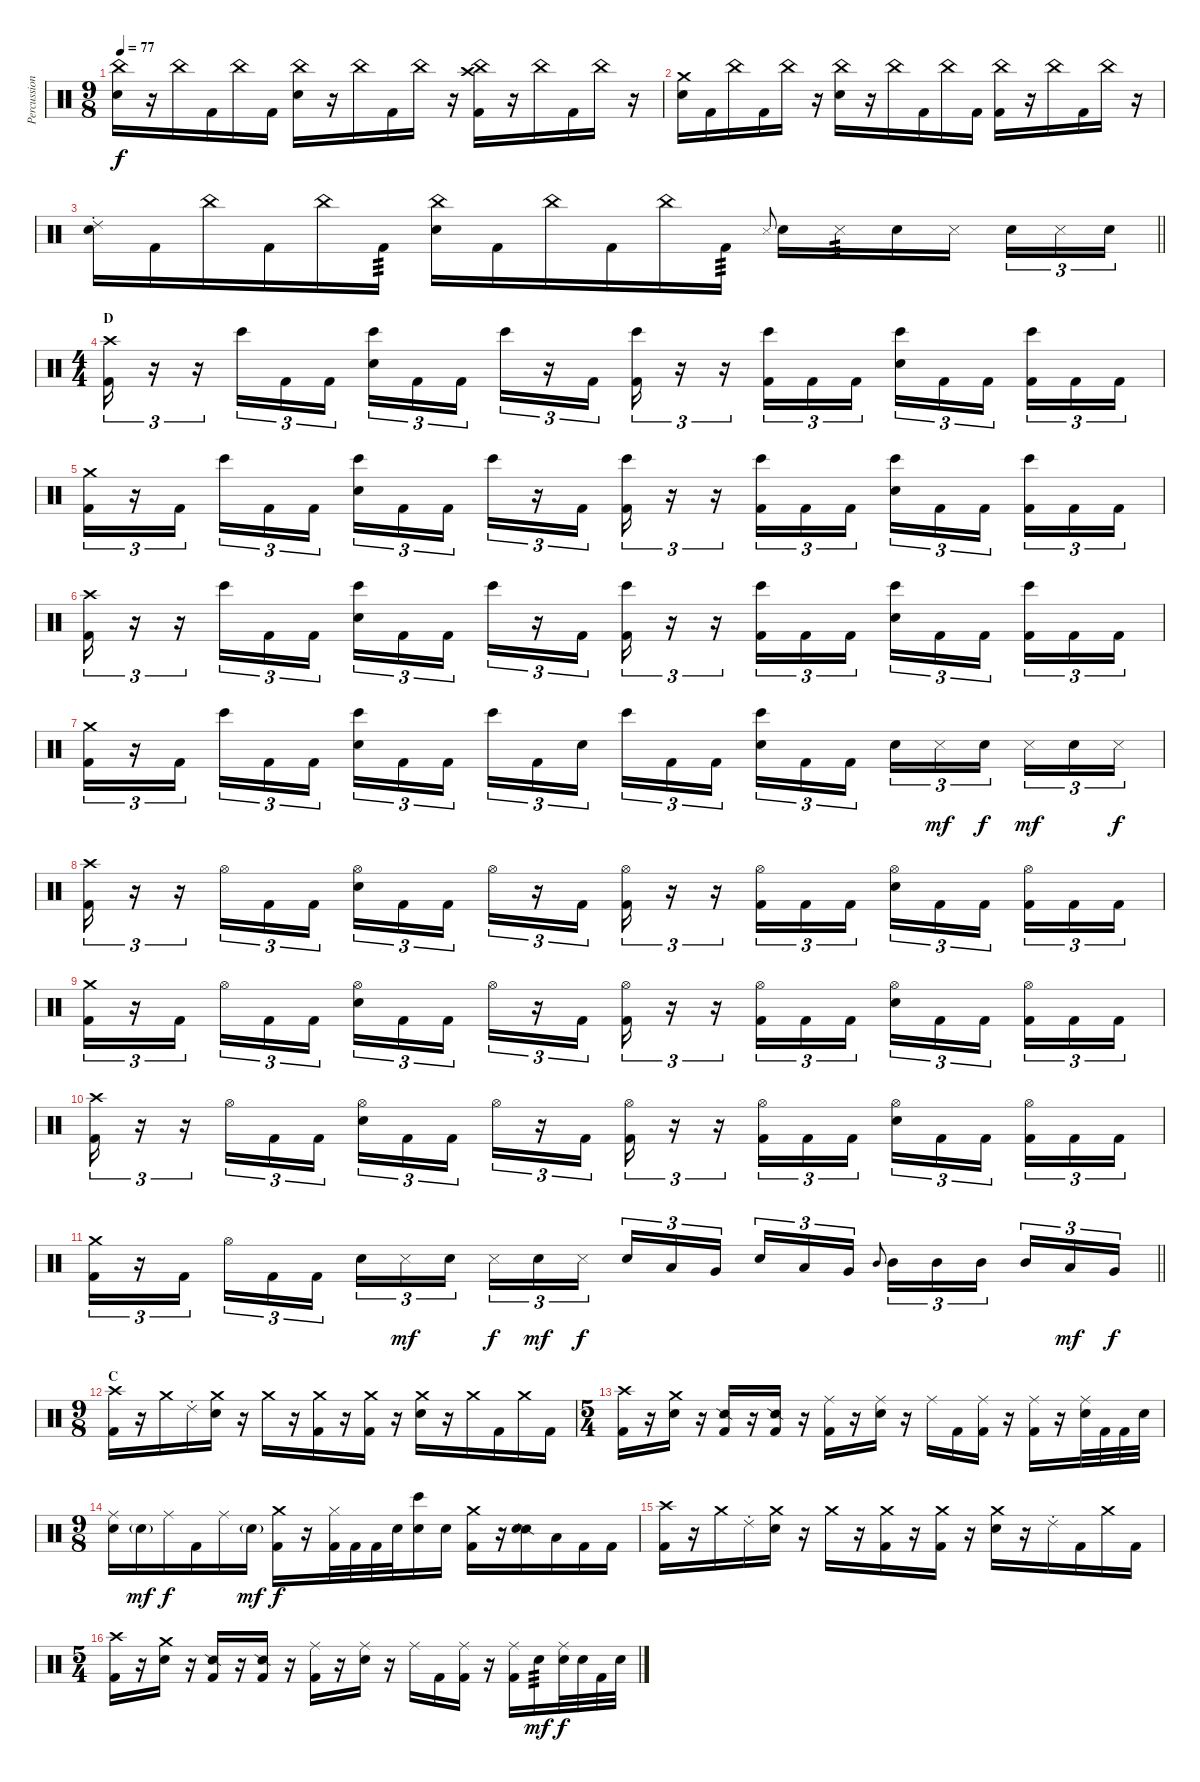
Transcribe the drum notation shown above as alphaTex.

\track ("Percussion" "Percussion") {instrument percussion}
\staff {score}
\articulation defaults
\ts (9 8)
\tempo 77
\clef neutral
\ks c
("China (hit)" "Snare (hit) 2").16{dy f} r.16 "China (hit)".16 "Kick (hit) 2".16 "China (hit)".16 "Kick (hit) 2".16 ("China (hit)" "Snare (hit) 2").16 r.16 "China (hit)".16 "Kick (hit) 2".16 "China (hit)".16 r.16 ("China (hit)" "Crash high (hit)" "Kick (hit) 2").16 r.16 "China (hit)".16 "Kick (hit) 2".16 "China (hit)".16 r.16 |
("Crash medium (hit)" "Snare (hit) 2").16 "Kick (hit) 2".16 "China (hit)".16 "Kick (hit) 2".16 "China (hit)".16 r.16 ("China (hit)" "Snare (hit) 2").16 r.16 "China (hit)".16 "Kick (hit) 2".16 "China (hit)".16 "Kick (hit) 2".16 ("China (hit)" "Kick (hit) 2").16 r.16 "China (hit)".16 "Kick (hit) 2".16 "China (hit)".16 r.16 |
\barLineRight lightlight
("Ride (choke) 2" "Snare (hit) 2").16 "Kick (hit) 2".16 "China (hit)".16 "Kick (hit) 2".16 "China (hit)".16 "Kick (hit) 2".16{tp 3} ("China (hit)" "Snare (hit) 2").16 "Kick (hit) 2".16 "China (hit)".16 "Kick (hit) 2".16 "China (hit)".16 "Kick (hit) 2".16{tp 3} "Metronome (hit)".8{gr onbeat} "Snare (hit) 2".16 "Metronome (hit)".16{tp 3} "Snare (hit) 2".16 "Metronome (hit)".16{beam splitsecondary} "Snare (hit) 2".16{tu (3 2)} "Metronome (hit)".16{tu (3 2)} "Snare (hit) 2".16{tu (3 2)} |
\ts (4 4)
\section ("" "D")
("Crash high (hit)" "Kick (hit) 2").16{tu (3 2)} r.16{tu (3 2)} r.16{tu (3 2)} "Bongo High (hit)".16{tu (3 2)} "Kick (hit) 2".16{tu (3 2)} "Kick (hit) 2".16{tu (3 2)} ("Bongo High (hit)" "Snare (hit) 2").16{tu (3 2)} "Kick (hit) 2".16{tu (3 2)} "Kick (hit) 2".16{tu (3 2) beam splitsecondary} "Bongo High (hit)".16{tu (3 2)} r.16{tu (3 2)} "Kick (hit) 2".16{tu (3 2)} ("Bongo High (hit)" "Kick (hit) 2").16{tu (3 2)} r.16{tu (3 2)} r.16{tu (3 2)} ("Bongo High (hit)" "Kick (hit) 2").16{tu (3 2)} "Kick (hit) 2".16{tu (3 2)} "Kick (hit) 2".16{tu (3 2)} ("Bongo High (hit)" "Snare (hit) 2").16{tu (3 2)} "Kick (hit) 2".16{tu (3 2)} "Kick (hit) 2".16{tu (3 2) beam splitsecondary} ("Bongo High (hit)" "Kick (hit) 2").16{tu (3 2)} "Kick (hit) 2".16{tu (3 2)} "Kick (hit) 2".16{tu (3 2)} |
("Crash medium (hit)" "Kick (hit) 2").16{tu (3 2)} r.16{tu (3 2)} "Kick (hit) 2".16{tu (3 2) beam splitsecondary} "Bongo High (hit)".16{tu (3 2)} "Kick (hit) 2".16{tu (3 2)} "Kick (hit) 2".16{tu (3 2)} ("Bongo High (hit)" "Snare (hit) 2").16{tu (3 2)} "Kick (hit) 2".16{tu (3 2)} "Kick (hit) 2".16{tu (3 2) beam splitsecondary} "Bongo High (hit)".16{tu (3 2)} r.16{tu (3 2)} "Kick (hit) 2".16{tu (3 2)} ("Bongo High (hit)" "Kick (hit) 2").16{tu (3 2)} r.16{tu (3 2)} r.16{tu (3 2)} ("Bongo High (hit)" "Kick (hit) 2").16{tu (3 2)} "Kick (hit) 2".16{tu (3 2)} "Kick (hit) 2".16{tu (3 2)} ("Bongo High (hit)" "Snare (hit) 2").16{tu (3 2)} "Kick (hit) 2".16{tu (3 2)} "Kick (hit) 2".16{tu (3 2) beam splitsecondary} ("Bongo High (hit)" "Kick (hit) 2").16{tu (3 2)} "Kick (hit) 2".16{tu (3 2)} "Kick (hit) 2".16{tu (3 2)} |
("Crash high (hit)" "Kick (hit) 2").16{tu (3 2)} r.16{tu (3 2)} r.16{tu (3 2)} "Bongo High (hit)".16{tu (3 2)} "Kick (hit) 2".16{tu (3 2)} "Kick (hit) 2".16{tu (3 2)} ("Bongo High (hit)" "Snare (hit) 2").16{tu (3 2)} "Kick (hit) 2".16{tu (3 2)} "Kick (hit) 2".16{tu (3 2) beam splitsecondary} "Bongo High (hit)".16{tu (3 2)} r.16{tu (3 2)} "Kick (hit) 2".16{tu (3 2)} ("Bongo High (hit)" "Kick (hit) 2").16{tu (3 2)} r.16{tu (3 2)} r.16{tu (3 2)} ("Bongo High (hit)" "Kick (hit) 2").16{tu (3 2)} "Kick (hit) 2".16{tu (3 2)} "Kick (hit) 2".16{tu (3 2)} ("Bongo High (hit)" "Snare (hit) 2").16{tu (3 2)} "Kick (hit) 2".16{tu (3 2)} "Kick (hit) 2".16{tu (3 2) beam splitsecondary} ("Bongo High (hit)" "Kick (hit) 2").16{tu (3 2)} "Kick (hit) 2".16{tu (3 2)} "Kick (hit) 2".16{tu (3 2)} |
("Crash medium (hit)" "Kick (hit) 2").16{tu (3 2)} r.16{tu (3 2)} "Kick (hit) 2".16{tu (3 2) beam splitsecondary} "Bongo High (hit)".16{tu (3 2)} "Kick (hit) 2".16{tu (3 2)} "Kick (hit) 2".16{tu (3 2)} ("Bongo High (hit)" "Snare (hit) 2").16{tu (3 2)} "Kick (hit) 2".16{tu (3 2)} "Kick (hit) 2".16{tu (3 2) beam splitsecondary} "Bongo High (hit)".16{tu (3 2)} "Kick (hit) 2".16{tu (3 2)} "Snare (hit) 2".16{tu (3 2)} "Bongo High (hit)".16{tu (3 2)} "Kick (hit) 2".16{tu (3 2)} "Kick (hit) 2".16{tu (3 2) beam splitsecondary} ("Bongo High (hit)" "Snare (hit) 2").16{tu (3 2)} "Kick (hit) 2".16{tu (3 2)} "Kick (hit) 2".16{tu (3 2)} "Snare (hit) 2".16{tu (3 2)} "Metronome (hit)".16{tu (3 2) dy mf} "Snare (hit) 2".16{tu (3 2) dy f beam splitsecondary} "Metronome (hit)".16{tu (3 2) dy mf} "Snare (hit) 2".16{tu (3 2)} "Metronome (hit)".16{tu (3 2) dy f} |
("Crash high (hit)" "Kick (hit) 2").16{tu (3 2)} r.16{tu (3 2)} r.16{tu (3 2)} "Hi-Hat (open)".16{tu (3 2)} "Kick (hit) 2".16{tu (3 2)} "Kick (hit) 2".16{tu (3 2)} ("Hi-Hat (open)" "Snare (hit) 2").16{tu (3 2)} "Kick (hit) 2".16{tu (3 2)} "Kick (hit) 2".16{tu (3 2) beam splitsecondary} "Hi-Hat (open)".16{tu (3 2)} r.16{tu (3 2)} "Kick (hit) 2".16{tu (3 2)} ("Hi-Hat (open)" "Kick (hit) 2").16{tu (3 2)} r.16{tu (3 2)} r.16{tu (3 2)} ("Hi-Hat (open)" "Kick (hit) 2").16{tu (3 2)} "Kick (hit) 2".16{tu (3 2)} "Kick (hit) 2".16{tu (3 2)} ("Hi-Hat (open)" "Snare (hit) 2").16{tu (3 2)} "Kick (hit) 2".16{tu (3 2)} "Kick (hit) 2".16{tu (3 2) beam splitsecondary} ("Hi-Hat (open)" "Kick (hit) 2").16{tu (3 2)} "Kick (hit) 2".16{tu (3 2)} "Kick (hit) 2".16{tu (3 2)} |
("Crash medium (hit)" "Kick (hit) 2").16{tu (3 2)} r.16{tu (3 2)} "Kick (hit) 2".16{tu (3 2) beam splitsecondary} "Hi-Hat (open)".16{tu (3 2)} "Kick (hit) 2".16{tu (3 2)} "Kick (hit) 2".16{tu (3 2)} ("Hi-Hat (open)" "Snare (hit) 2").16{tu (3 2)} "Kick (hit) 2".16{tu (3 2)} "Kick (hit) 2".16{tu (3 2) beam splitsecondary} "Hi-Hat (open)".16{tu (3 2)} r.16{tu (3 2)} "Kick (hit) 2".16{tu (3 2)} ("Hi-Hat (open)" "Kick (hit) 2").16{tu (3 2)} r.16{tu (3 2)} r.16{tu (3 2)} ("Hi-Hat (open)" "Kick (hit) 2").16{tu (3 2)} "Kick (hit) 2".16{tu (3 2)} "Kick (hit) 2".16{tu (3 2)} ("Hi-Hat (open)" "Snare (hit) 2").16{tu (3 2)} "Kick (hit) 2".16{tu (3 2)} "Kick (hit) 2".16{tu (3 2) beam splitsecondary} ("Hi-Hat (open)" "Kick (hit) 2").16{tu (3 2)} "Kick (hit) 2".16{tu (3 2)} "Kick (hit) 2".16{tu (3 2)} |
("Crash high (hit)" "Kick (hit) 2").16{tu (3 2)} r.16{tu (3 2)} r.16{tu (3 2)} "Hi-Hat (open)".16{tu (3 2)} "Kick (hit) 2".16{tu (3 2)} "Kick (hit) 2".16{tu (3 2)} ("Hi-Hat (open)" "Snare (hit) 2").16{tu (3 2)} "Kick (hit) 2".16{tu (3 2)} "Kick (hit) 2".16{tu (3 2) beam splitsecondary} "Hi-Hat (open)".16{tu (3 2)} r.16{tu (3 2)} "Kick (hit) 2".16{tu (3 2)} ("Hi-Hat (open)" "Kick (hit) 2").16{tu (3 2)} r.16{tu (3 2)} r.16{tu (3 2)} ("Hi-Hat (open)" "Kick (hit) 2").16{tu (3 2)} "Kick (hit) 2".16{tu (3 2)} "Kick (hit) 2".16{tu (3 2)} ("Hi-Hat (open)" "Snare (hit) 2").16{tu (3 2)} "Kick (hit) 2".16{tu (3 2)} "Kick (hit) 2".16{tu (3 2) beam splitsecondary} ("Hi-Hat (open)" "Kick (hit) 2").16{tu (3 2)} "Kick (hit) 2".16{tu (3 2)} "Kick (hit) 2".16{tu (3 2)} |
\barLineRight lightlight
("Crash medium (hit)" "Kick (hit) 2").16{tu (3 2)} r.16{tu (3 2)} "Kick (hit) 2".16{tu (3 2) beam splitsecondary} "Hi-Hat (open)".16{tu (3 2)} "Kick (hit) 2".16{tu (3 2)} "Kick (hit) 2".16{tu (3 2)} "Snare (hit) 2".16{tu (3 2)} "Metronome (hit)".16{tu (3 2) dy mf} "Snare (hit) 2".16{tu (3 2) beam splitsecondary} "Metronome (hit)".16{tu (3 2) dy f} "Snare (hit) 2".16{tu (3 2) dy mf} "Metronome (hit)".16{tu (3 2) dy f} "Snare (hit) 2".16{tu (3 2)} "Low Tom (hit)".16{tu (3 2)} "Very Low Tom (hit)".16{tu (3 2) beam splitsecondary} "Snare (hit) 2".16{tu (3 2)} "Low Tom (hit)".16{tu (3 2)} "Very Low Tom (hit)".16{tu (3 2)} "Mid Tom (hit)".8{gr onbeat} "Mid Tom (hit)".16{tu (3 2)} "Mid Tom (hit)".16{tu (3 2)} "Mid Tom (hit)".16{tu (3 2) beam splitsecondary} "Mid Tom (hit)".16{tu (3 2)} "Low Tom (hit)".16{tu (3 2) dy mf} "Very Low Tom (hit)".16{tu (3 2) dy f} |
\ts (9 8)
\section ("" "C")
("Crash high (hit)" "Kick (hit) 2").16 r.16 "Crash medium (hit)".16 "Ride (choke) 2".16 ("Crash medium (hit)" "Snare (hit) 2").16 r.16 "Crash medium (hit)".16 r.16 ("Crash medium (hit)" "Kick (hit) 2").16 r.16 ("Crash medium (hit)" "Kick (hit) 2").16 r.16 ("Crash medium (hit)" "Snare (hit) 2").16 r.16 "Crash medium (hit)".16 "Kick (hit) 2".16 "Crash medium (hit)".16 "Kick (hit) 2".16 |
\ts (5 4)
("Crash high (hit)" "Kick (hit) 2").16 r.16 ("Crash medium (hit)" "Snare (hit) 2").16 r.16 ("Snare (side stick) 2" "Kick (hit) 2").16 r.16 ("Snare (side stick) 2" "Kick (hit) 2").16 r.16 ("Ride (middle)" "Kick (hit) 2").16 r.16 ("Ride (middle)" "Snare (hit) 2").16 r.16 "Ride (middle)".16 "Kick (hit) 2".16 ("Ride (middle)" "Kick (hit) 2").16 r.16 ("Ride (middle)" "Kick (hit) 2").16 r.16 ("Ride (middle)" "Snare (hit) 2").32 "Kick (hit) 2".32 "Kick (hit) 2".32 "Snare (hit) 2".32 |
\ts (9 8)
("Ride (middle)" "Snare (hit) 2").16 "Snare (hit) 2"{g}.16{dy mf} "Ride (middle)".16{dy f} "Kick (hit) 2".16 "Ride (middle)".16 "Snare (hit) 2"{g}.16{dy mf} ("Crash medium (hit)" "Kick (hit) 2").16{dy f} r.16 ("Hi-Hat (closed)" "Kick (hit) 2").32 "Kick (hit) 2".32 "Kick (hit) 2".32 "Snare (hit) 2".32 ("Bongo High (hit)" "Snare (hit) 2").16 "Snare (hit) 2".16 ("Crash medium (hit)" "Kick (hit) 2").16 r.16 ("Snare (side stick) 2" "Snare (hit) 2").16 "Low Tom (hit)".16 "Kick (hit) 2".16 "Kick (hit) 2".16 |
("Crash high (hit)" "Kick (hit) 2").16 r.16 "Crash medium (hit)".16 "Ride (choke) 2".16 ("Crash medium (hit)" "Snare (hit) 2").16 r.16 "Crash medium (hit)".16 r.16 ("Crash medium (hit)" "Kick (hit) 2").16 r.16 ("Crash medium (hit)" "Kick (hit) 2").16 r.16 ("Crash medium (hit)" "Snare (hit) 2").16 r.16 "Ride (choke) 2".16 "Kick (hit) 2".16 "Crash medium (hit)".16 "Kick (hit) 2".16 |
\ts (5 4)
("Crash high (hit)" "Kick (hit) 2").16 r.16 ("Crash medium (hit)" "Snare (hit) 2").16 r.16 ("Snare (side stick) 2" "Kick (hit) 2").16 r.16 ("Snare (side stick) 2" "Kick (hit) 2").16 r.16 ("Ride (middle)" "Kick (hit) 2").16 r.16 ("Ride (middle)" "Snare (hit) 2").16 r.16 "Ride (middle)".16 "Kick (hit) 2".16 ("Ride (middle)" "Kick (hit) 2").16 r.16 ("Ride (middle)" "Kick (hit) 2").16 "Snare (hit) 2".16{tp 3 dy mf} ("Ride (middle)" "Snare (hit) 2").32{dy f} "Snare (hit) 2".32 "Kick (hit) 2".32 "Snare (hit) 2".32
